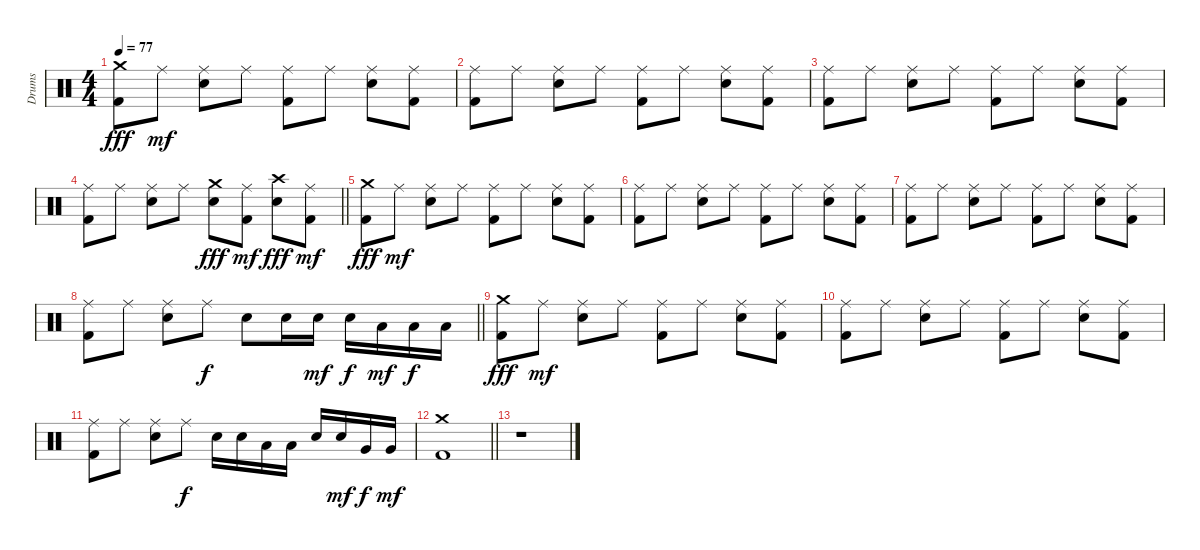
\track ("Drums" "Drums") {instrument percussion}
\staff {score}
\articulation defaults
\ts (4 4)
\tempo 77
\clef neutral
\ks c
("Crash medium (hit)" "Kick (hit) 2").8{dy fff} "Ride (middle)".8{dy mf} ("Ride (middle)" "Electric Snare (hit)").8 "Ride (middle)".8 ("Ride (middle)" "Kick (hit) 2").8 "Ride (middle)".8 ("Ride (middle)" "Electric Snare (hit)").8 ("Ride (middle)" "Kick (hit) 2").8 |
("Ride (middle)" "Kick (hit) 2").8 "Ride (middle)".8 ("Ride (middle)" "Electric Snare (hit)").8 "Ride (middle)".8 ("Ride (middle)" "Kick (hit) 2").8 "Ride (middle)".8 ("Ride (middle)" "Electric Snare (hit)").8 ("Ride (middle)" "Kick (hit) 2").8 |
("Ride (middle)" "Kick (hit) 2").8 "Ride (middle)".8 ("Ride (middle)" "Electric Snare (hit)").8 "Ride (middle)".8 ("Ride (middle)" "Kick (hit) 2").8 "Ride (middle)".8 ("Ride (middle)" "Electric Snare (hit)").8 ("Ride (middle)" "Kick (hit) 2").8 |
\barLineRight lightlight
("Ride (middle)" "Kick (hit) 2").8 "Ride (middle)".8 ("Ride (middle)" "Electric Snare (hit)").8 "Ride (middle)".8 ("Crash medium (hit)" "Electric Snare (hit)").8{dy fff} ("Ride (middle)" "Kick (hit) 2").8{dy mf} ("Crash high (hit)" "Electric Snare (hit)").8{dy fff} ("Ride (middle)" "Kick (hit) 2").8{dy mf} |
("Crash medium (hit)" "Kick (hit) 2").8{dy fff} "Ride (middle)".8{dy mf} ("Ride (middle)" "Electric Snare (hit)").8 "Ride (middle)".8 ("Ride (middle)" "Kick (hit) 2").8 "Ride (middle)".8 ("Ride (middle)" "Electric Snare (hit)").8 ("Ride (middle)" "Kick (hit) 2").8 |
("Ride (middle)" "Kick (hit) 2").8 "Ride (middle)".8 ("Ride (middle)" "Electric Snare (hit)").8 "Ride (middle)".8 ("Ride (middle)" "Kick (hit) 2").8 "Ride (middle)".8 ("Ride (middle)" "Electric Snare (hit)").8 ("Ride (middle)" "Kick (hit) 2").8 |
("Ride (middle)" "Kick (hit) 2").8 "Ride (middle)".8 ("Ride (middle)" "Electric Snare (hit)").8 "Ride (middle)".8 ("Ride (middle)" "Kick (hit) 2").8 "Ride (middle)".8 ("Ride (middle)" "Electric Snare (hit)").8 ("Ride (middle)" "Kick (hit) 2").8 |
\barLineRight lightlight
("Ride (middle)" "Kick (hit) 2").8 "Ride (middle)".8 ("Ride (middle)" "Electric Snare (hit)").8 "Ride (middle)".8{dy f} "Electric Snare (hit)".8 "Electric Snare (hit)".16 "Electric Snare (hit)".16{dy mf} "Electric Snare (hit)".16{dy f} "Low Tom (hit)".16{dy mf} "Low Tom (hit)".16{dy f} "Low Tom (hit)".16 |
("Crash medium (hit)" "Kick (hit) 2").8{dy fff} "Ride (middle)".8{dy mf} ("Ride (middle)" "Electric Snare (hit)").8 "Ride (middle)".8 ("Ride (middle)" "Kick (hit) 2").8 "Ride (middle)".8 ("Ride (middle)" "Electric Snare (hit)").8 ("Ride (middle)" "Kick (hit) 2").8 |
("Ride (middle)" "Kick (hit) 2").8 "Ride (middle)".8 ("Ride (middle)" "Electric Snare (hit)").8 "Ride (middle)".8 ("Ride (middle)" "Kick (hit) 2").8 "Ride (middle)".8 ("Ride (middle)" "Electric Snare (hit)").8 ("Ride (middle)" "Kick (hit) 2").8 |
("Ride (middle)" "Kick (hit) 2").8 "Ride (middle)".8 ("Ride (middle)" "Electric Snare (hit)").8 "Ride (middle)".8{dy f} "Electric Snare (hit)".16 "Electric Snare (hit)".16 "Low Tom (hit)".16 "Low Tom (hit)".16 "Electric Snare (hit)".16 "Electric Snare (hit)".16{dy mf} "Very Low Tom (hit)".16{dy f} "Very Low Tom (hit)".16{dy mf} |
\barLineRight lightlight
("Crash medium (hit)" "Kick (hit) 2").1 |
r.1
